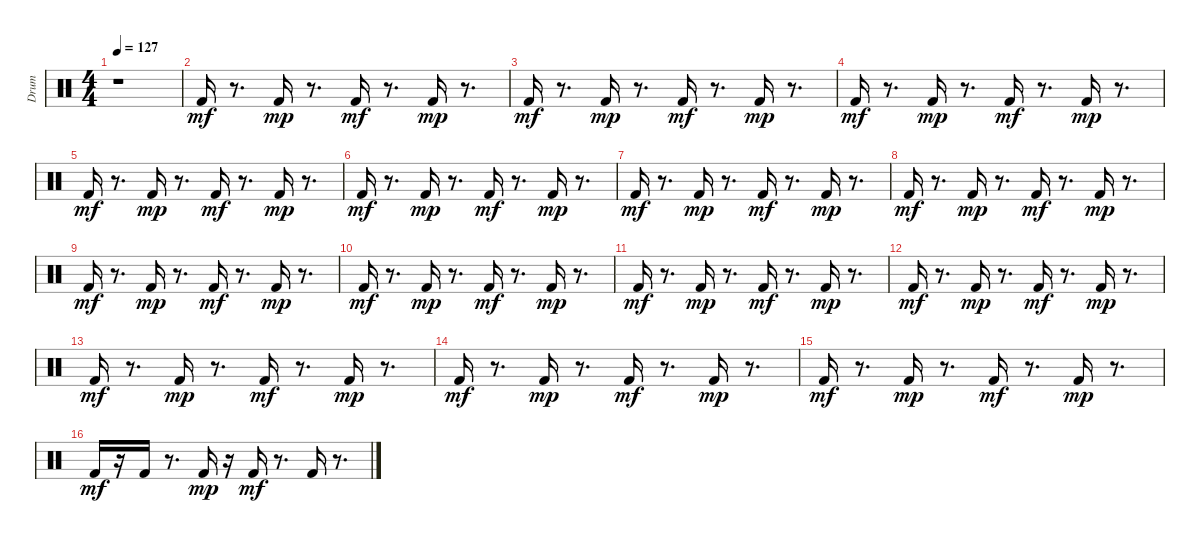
\track ("Drum" "Drum") {instrument percussion}
\staff {score}
\articulation defaults
\ts (4 4)
\tempo 127
\clef neutral
\ks c
r.1{dy f} |
"Kick (hit) 2".16{dy mf} r.8{d} "Kick (hit) 2".16{dy mp} r.8{d} "Kick (hit) 2".16{dy mf} r.8{d} "Kick (hit) 2".16{dy mp} r.8{d} |
"Kick (hit) 2".16{dy mf} r.8{d} "Kick (hit) 2".16{dy mp} r.8{d} "Kick (hit) 2".16{dy mf} r.8{d} "Kick (hit) 2".16{dy mp} r.8{d} |
"Kick (hit) 2".16{dy mf} r.8{d} "Kick (hit) 2".16{dy mp} r.8{d} "Kick (hit) 2".16{dy mf} r.8{d} "Kick (hit) 2".16{dy mp} r.8{d} |
"Kick (hit) 2".16{dy mf} r.8{d} "Kick (hit) 2".16{dy mp} r.8{d} "Kick (hit) 2".16{dy mf} r.8{d} "Kick (hit) 2".16{dy mp} r.8{d} |
"Kick (hit) 2".16{dy mf} r.8{d} "Kick (hit) 2".16{dy mp} r.8{d} "Kick (hit) 2".16{dy mf} r.8{d} "Kick (hit) 2".16{dy mp} r.8{d} |
"Kick (hit) 2".16{dy mf} r.8{d} "Kick (hit) 2".16{dy mp} r.8{d} "Kick (hit) 2".16{dy mf} r.8{d} "Kick (hit) 2".16{dy mp} r.8{d} |
"Kick (hit) 2".16{dy mf} r.8{d} "Kick (hit) 2".16{dy mp} r.8{d} "Kick (hit) 2".16{dy mf} r.8{d} "Kick (hit) 2".16{dy mp} r.8{d} |
"Kick (hit) 2".16{dy mf} r.8{d} "Kick (hit) 2".16{dy mp} r.8{d} "Kick (hit) 2".16{dy mf} r.8{d} "Kick (hit) 2".16{dy mp} r.8{d} |
"Kick (hit) 2".16{dy mf} r.8{d} "Kick (hit) 2".16{dy mp} r.8{d} "Kick (hit) 2".16{dy mf} r.8{d} "Kick (hit) 2".16{dy mp} r.8{d} |
"Kick (hit) 2".16{dy mf} r.8{d} "Kick (hit) 2".16{dy mp} r.8{d} "Kick (hit) 2".16{dy mf} r.8{d} "Kick (hit) 2".16{dy mp} r.8{d} |
"Kick (hit) 2".16{dy mf} r.8{d} "Kick (hit) 2".16{dy mp} r.8{d} "Kick (hit) 2".16{dy mf} r.8{d} "Kick (hit) 2".16{dy mp} r.8{d} |
"Kick (hit) 2".16{dy mf} r.8{d} "Kick (hit) 2".16{dy mp} r.8{d} "Kick (hit) 2".16{dy mf} r.8{d} "Kick (hit) 2".16{dy mp} r.8{d} |
"Kick (hit) 2".16{dy mf} r.8{d} "Kick (hit) 2".16{dy mp} r.8{d} "Kick (hit) 2".16{dy mf} r.8{d} "Kick (hit) 2".16{dy mp} r.8{d} |
"Kick (hit) 2".16{dy mf} r.8{d} "Kick (hit) 2".16{dy mp} r.8{d} "Kick (hit) 2".16{dy mf} r.8{d} "Kick (hit) 2".16{dy mp} r.8{d} |
"Kick (hit) 2".16{dy mf} r.16 "Kick (hit) 2".16 r.8{d} "Kick (hit) 2".16{dy mp} r.16 "Kick (hit) 2".16{dy mf} r.8{d} "Kick (hit) 2".16 r.8{d}
